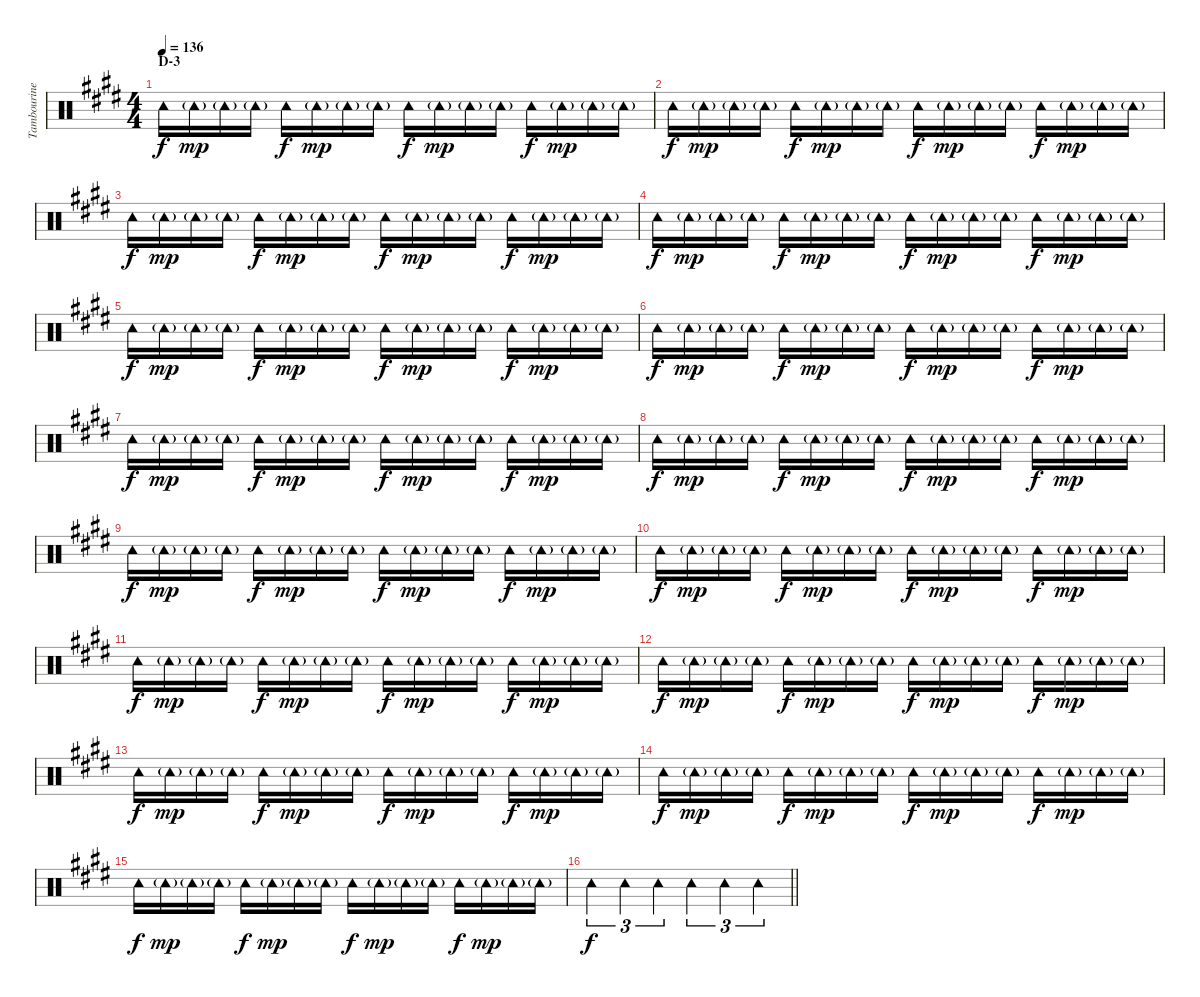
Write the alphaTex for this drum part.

\track ("Tambourine" "Tambourine") {instrument percussion}
\staff {score}
\articulation defaults
\ts (4 4)
\section ("" "D-3")
\tempo 136
\clef neutral
\ks e "Tambourine (hit)".16{dy f} "Tambourine (hit)"{g}.16{dy mp} "Tambourine (hit)"{g}.16 "Tambourine (hit)"{g}.16 "Tambourine (hit)".16{dy f} "Tambourine (hit)"{g}.16{dy mp} "Tambourine (hit)"{g}.16 "Tambourine (hit)"{g}.16 "Tambourine (hit)".16{dy f} "Tambourine (hit)"{g}.16{dy mp} "Tambourine (hit)"{g}.16 "Tambourine (hit)"{g}.16 "Tambourine (hit)".16{dy f} "Tambourine (hit)"{g}.16{dy mp} "Tambourine (hit)"{g}.16 "Tambourine (hit)"{g}.16
|
"Tambourine (hit)".16{dy f} "Tambourine (hit)"{g}.16{dy mp} "Tambourine (hit)"{g}.16 "Tambourine (hit)"{g}.16 "Tambourine (hit)".16{dy f} "Tambourine (hit)"{g}.16{dy mp} "Tambourine (hit)"{g}.16 "Tambourine (hit)"{g}.16 "Tambourine (hit)".16{dy f} "Tambourine (hit)"{g}.16{dy mp} "Tambourine (hit)"{g}.16 "Tambourine (hit)"{g}.16 "Tambourine (hit)".16{dy f} "Tambourine (hit)"{g}.16{dy mp} "Tambourine (hit)"{g}.16 "Tambourine (hit)"{g}.16 |
"Tambourine (hit)".16{dy f} "Tambourine (hit)"{g}.16{dy mp} "Tambourine (hit)"{g}.16 "Tambourine (hit)"{g}.16 "Tambourine (hit)".16{dy f} "Tambourine (hit)"{g}.16{dy mp} "Tambourine (hit)"{g}.16 "Tambourine (hit)"{g}.16 "Tambourine (hit)".16{dy f} "Tambourine (hit)"{g}.16{dy mp} "Tambourine (hit)"{g}.16 "Tambourine (hit)"{g}.16 "Tambourine (hit)".16{dy f} "Tambourine (hit)"{g}.16{dy mp} "Tambourine (hit)"{g}.16 "Tambourine (hit)"{g}.16 |
"Tambourine (hit)".16{dy f} "Tambourine (hit)"{g}.16{dy mp} "Tambourine (hit)"{g}.16 "Tambourine (hit)"{g}.16 "Tambourine (hit)".16{dy f} "Tambourine (hit)"{g}.16{dy mp} "Tambourine (hit)"{g}.16 "Tambourine (hit)"{g}.16 "Tambourine (hit)".16{dy f} "Tambourine (hit)"{g}.16{dy mp} "Tambourine (hit)"{g}.16 "Tambourine (hit)"{g}.16 "Tambourine (hit)".16{dy f} "Tambourine (hit)"{g}.16{dy mp} "Tambourine (hit)"{g}.16 "Tambourine (hit)"{g}.16 |
"Tambourine (hit)".16{dy f} "Tambourine (hit)"{g}.16{dy mp} "Tambourine (hit)"{g}.16 "Tambourine (hit)"{g}.16 "Tambourine (hit)".16{dy f} "Tambourine (hit)"{g}.16{dy mp} "Tambourine (hit)"{g}.16 "Tambourine (hit)"{g}.16 "Tambourine (hit)".16{dy f} "Tambourine (hit)"{g}.16{dy mp} "Tambourine (hit)"{g}.16 "Tambourine (hit)"{g}.16 "Tambourine (hit)".16{dy f} "Tambourine (hit)"{g}.16{dy mp} "Tambourine (hit)"{g}.16 "Tambourine (hit)"{g}.16 |
"Tambourine (hit)".16{dy f} "Tambourine (hit)"{g}.16{dy mp} "Tambourine (hit)"{g}.16 "Tambourine (hit)"{g}.16 "Tambourine (hit)".16{dy f} "Tambourine (hit)"{g}.16{dy mp} "Tambourine (hit)"{g}.16 "Tambourine (hit)"{g}.16 "Tambourine (hit)".16{dy f} "Tambourine (hit)"{g}.16{dy mp} "Tambourine (hit)"{g}.16 "Tambourine (hit)"{g}.16 "Tambourine (hit)".16{dy f} "Tambourine (hit)"{g}.16{dy mp} "Tambourine (hit)"{g}.16 "Tambourine (hit)"{g}.16 |
"Tambourine (hit)".16{dy f} "Tambourine (hit)"{g}.16{dy mp} "Tambourine (hit)"{g}.16 "Tambourine (hit)"{g}.16 "Tambourine (hit)".16{dy f} "Tambourine (hit)"{g}.16{dy mp} "Tambourine (hit)"{g}.16 "Tambourine (hit)"{g}.16 "Tambourine (hit)".16{dy f} "Tambourine (hit)"{g}.16{dy mp} "Tambourine (hit)"{g}.16 "Tambourine (hit)"{g}.16 "Tambourine (hit)".16{dy f} "Tambourine (hit)"{g}.16{dy mp} "Tambourine (hit)"{g}.16 "Tambourine (hit)"{g}.16 |
"Tambourine (hit)".16{dy f} "Tambourine (hit)"{g}.16{dy mp} "Tambourine (hit)"{g}.16 "Tambourine (hit)"{g}.16 "Tambourine (hit)".16{dy f} "Tambourine (hit)"{g}.16{dy mp} "Tambourine (hit)"{g}.16 "Tambourine (hit)"{g}.16 "Tambourine (hit)".16{dy f} "Tambourine (hit)"{g}.16{dy mp} "Tambourine (hit)"{g}.16 "Tambourine (hit)"{g}.16 "Tambourine (hit)".16{dy f} "Tambourine (hit)"{g}.16{dy mp} "Tambourine (hit)"{g}.16 "Tambourine (hit)"{g}.16 |
"Tambourine (hit)".16{dy f} "Tambourine (hit)"{g}.16{dy mp} "Tambourine (hit)"{g}.16 "Tambourine (hit)"{g}.16 "Tambourine (hit)".16{dy f} "Tambourine (hit)"{g}.16{dy mp} "Tambourine (hit)"{g}.16 "Tambourine (hit)"{g}.16 "Tambourine (hit)".16{dy f} "Tambourine (hit)"{g}.16{dy mp} "Tambourine (hit)"{g}.16 "Tambourine (hit)"{g}.16 "Tambourine (hit)".16{dy f} "Tambourine (hit)"{g}.16{dy mp} "Tambourine (hit)"{g}.16 "Tambourine (hit)"{g}.16 |
"Tambourine (hit)".16{dy f} "Tambourine (hit)"{g}.16{dy mp} "Tambourine (hit)"{g}.16 "Tambourine (hit)"{g}.16 "Tambourine (hit)".16{dy f} "Tambourine (hit)"{g}.16{dy mp} "Tambourine (hit)"{g}.16 "Tambourine (hit)"{g}.16 "Tambourine (hit)".16{dy f} "Tambourine (hit)"{g}.16{dy mp} "Tambourine (hit)"{g}.16 "Tambourine (hit)"{g}.16 "Tambourine (hit)".16{dy f} "Tambourine (hit)"{g}.16{dy mp} "Tambourine (hit)"{g}.16 "Tambourine (hit)"{g}.16 |
"Tambourine (hit)".16{dy f} "Tambourine (hit)"{g}.16{dy mp} "Tambourine (hit)"{g}.16 "Tambourine (hit)"{g}.16 "Tambourine (hit)".16{dy f} "Tambourine (hit)"{g}.16{dy mp} "Tambourine (hit)"{g}.16 "Tambourine (hit)"{g}.16 "Tambourine (hit)".16{dy f} "Tambourine (hit)"{g}.16{dy mp} "Tambourine (hit)"{g}.16 "Tambourine (hit)"{g}.16 "Tambourine (hit)".16{dy f} "Tambourine (hit)"{g}.16{dy mp} "Tambourine (hit)"{g}.16 "Tambourine (hit)"{g}.16 |
"Tambourine (hit)".16{dy f} "Tambourine (hit)"{g}.16{dy mp} "Tambourine (hit)"{g}.16 "Tambourine (hit)"{g}.16 "Tambourine (hit)".16{dy f} "Tambourine (hit)"{g}.16{dy mp} "Tambourine (hit)"{g}.16 "Tambourine (hit)"{g}.16 "Tambourine (hit)".16{dy f} "Tambourine (hit)"{g}.16{dy mp} "Tambourine (hit)"{g}.16 "Tambourine (hit)"{g}.16 "Tambourine (hit)".16{dy f} "Tambourine (hit)"{g}.16{dy mp} "Tambourine (hit)"{g}.16 "Tambourine (hit)"{g}.16 |
"Tambourine (hit)".16{dy f} "Tambourine (hit)"{g}.16{dy mp} "Tambourine (hit)"{g}.16 "Tambourine (hit)"{g}.16 "Tambourine (hit)".16{dy f} "Tambourine (hit)"{g}.16{dy mp} "Tambourine (hit)"{g}.16 "Tambourine (hit)"{g}.16 "Tambourine (hit)".16{dy f} "Tambourine (hit)"{g}.16{dy mp} "Tambourine (hit)"{g}.16 "Tambourine (hit)"{g}.16 "Tambourine (hit)".16{dy f} "Tambourine (hit)"{g}.16{dy mp} "Tambourine (hit)"{g}.16 "Tambourine (hit)"{g}.16 |
"Tambourine (hit)".16{dy f} "Tambourine (hit)"{g}.16{dy mp} "Tambourine (hit)"{g}.16 "Tambourine (hit)"{g}.16 "Tambourine (hit)".16{dy f} "Tambourine (hit)"{g}.16{dy mp} "Tambourine (hit)"{g}.16 "Tambourine (hit)"{g}.16 "Tambourine (hit)".16{dy f} "Tambourine (hit)"{g}.16{dy mp} "Tambourine (hit)"{g}.16 "Tambourine (hit)"{g}.16 "Tambourine (hit)".16{dy f} "Tambourine (hit)"{g}.16{dy mp} "Tambourine (hit)"{g}.16 "Tambourine (hit)"{g}.16 |
"Tambourine (hit)".16{dy f} "Tambourine (hit)"{g}.16{dy mp} "Tambourine (hit)"{g}.16 "Tambourine (hit)"{g}.16 "Tambourine (hit)".16{dy f} "Tambourine (hit)"{g}.16{dy mp} "Tambourine (hit)"{g}.16 "Tambourine (hit)"{g}.16 "Tambourine (hit)".16{dy f} "Tambourine (hit)"{g}.16{dy mp} "Tambourine (hit)"{g}.16 "Tambourine (hit)"{g}.16 "Tambourine (hit)".16{dy f} "Tambourine (hit)"{g}.16{dy mp} "Tambourine (hit)"{g}.16 "Tambourine (hit)"{g}.16 |
\barLineRight lightlight "Tambourine (hit)".4{tu (3 2) dy f} "Tambourine (hit)".4{tu (3 2)} "Tambourine (hit)".4{tu (3 2)} "Tambourine (hit)".4{tu (3 2)} "Tambourine (hit)".4{tu (3 2)} "Tambourine (hit)".4{tu (3 2)}
